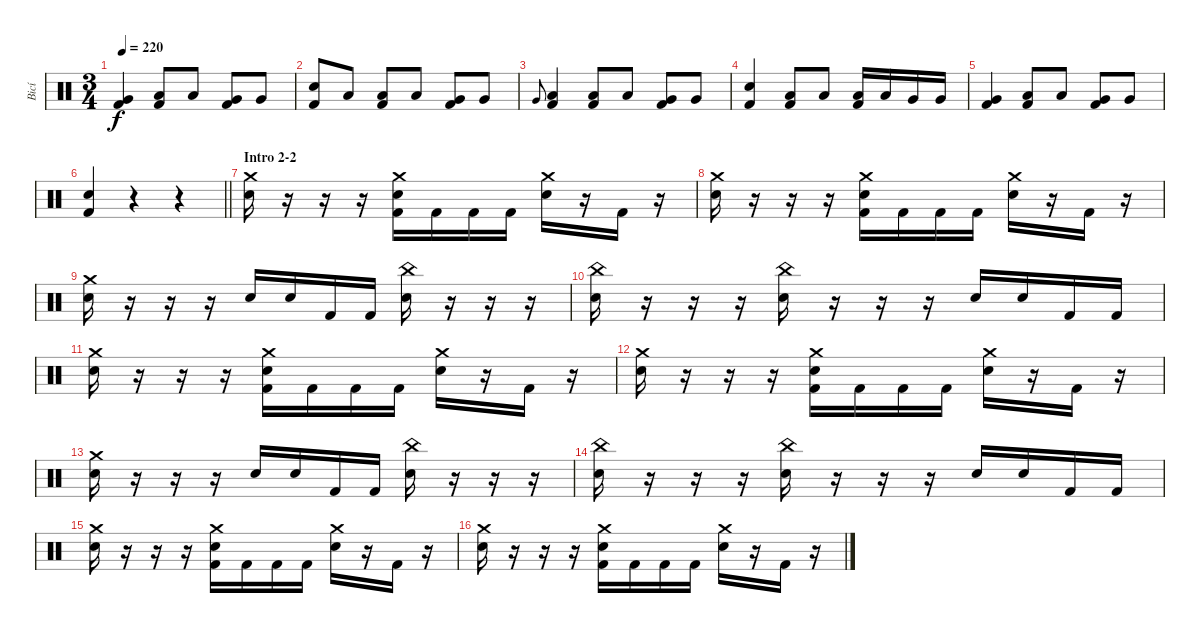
\track ("Bicí" "Bicí") {instrument percussion}
\staff {score}
\articulation defaults
\ts (3 4)
\tempo 220
\clef neutral
\ks c
("Very Low Tom (hit)" "Kick (hit) 2").4{dy f} ("Low Tom (hit)" "Kick (hit) 2").8 "Low Tom (hit)".8 ("Very Low Tom (hit)" "Kick (hit) 2").8 "Very Low Tom (hit)".8 |
("Electric Snare (hit)" "Kick (hit) 2").8 "Low Tom (hit)".8 ("Low Tom (hit)" "Kick (hit) 2").8 "Low Tom (hit)".8 ("Very Low Tom (hit)" "Kick (hit) 2").8 "Very Low Tom (hit)".8 |
"Very Low Tom (hit)".8{gr onbeat} ("Low Tom (hit)" "Kick (hit) 2").4 ("Low Tom (hit)" "Kick (hit) 2").8 "Low Tom (hit)".8 ("Very Low Tom (hit)" "Kick (hit) 2").8 "Very Low Tom (hit)".8 |
("Electric Snare (hit)" "Kick (hit) 2").4 ("Low Tom (hit)" "Kick (hit) 2").8 "Low Tom (hit)".8 ("Low Tom (hit)" "Kick (hit) 2").16 "Low Tom (hit)".16 "Very Low Tom (hit)".16 "Very Low Tom (hit)".16 |
("Very Low Tom (hit)" "Kick (hit) 2").4 ("Low Tom (hit)" "Kick (hit) 2").8 "Low Tom (hit)".8 ("Very Low Tom (hit)" "Kick (hit) 2").8 "Very Low Tom (hit)".8 |
\barLineRight lightlight
("Electric Snare (hit)" "Kick (hit) 2").4 r.4 r.4 |
\section ("" "Intro 2-2")
("Crash medium (hit)" "Electric Snare (hit)").16 r.16 r.16 r.16 ("Crash medium (hit)" "Electric Snare (hit)" "Kick (hit) 2").16 "Kick (hit) 2".16 "Kick (hit) 2".16 "Kick (hit) 2".16 ("Crash medium (hit)" "Electric Snare (hit)").16 r.16 "Kick (hit) 2".16 r.16 |
("Crash medium (hit)" "Electric Snare (hit)").16 r.16 r.16 r.16 ("Crash medium (hit)" "Electric Snare (hit)" "Kick (hit) 2").16 "Kick (hit) 2".16 "Kick (hit) 2".16 "Kick (hit) 2".16 ("Crash medium (hit)" "Electric Snare (hit)").16 r.16 "Kick (hit) 2".16 r.16 |
("Crash medium (hit)" "Electric Snare (hit)").16 r.16 r.16 r.16 "Electric Snare (hit)".16 "Electric Snare (hit)".16 "Kick (hit) 2".16 "Kick (hit) 2".16 ("China (hit)" "Electric Snare (hit)").16 r.16 r.16 r.16 |
("China (hit)" "Electric Snare (hit)").16 r.16 r.16 r.16 ("China (hit)" "Electric Snare (hit)").16 r.16 r.16 r.16 "Electric Snare (hit)".16 "Electric Snare (hit)".16 "Kick (hit) 2".16 "Kick (hit) 2".16 |
("Crash medium (hit)" "Electric Snare (hit)").16 r.16 r.16 r.16 ("Crash medium (hit)" "Electric Snare (hit)" "Kick (hit) 2").16 "Kick (hit) 2".16 "Kick (hit) 2".16 "Kick (hit) 2".16 ("Crash medium (hit)" "Electric Snare (hit)").16 r.16 "Kick (hit) 2".16 r.16 |
("Crash medium (hit)" "Electric Snare (hit)").16 r.16 r.16 r.16 ("Crash medium (hit)" "Electric Snare (hit)" "Kick (hit) 2").16 "Kick (hit) 2".16 "Kick (hit) 2".16 "Kick (hit) 2".16 ("Crash medium (hit)" "Electric Snare (hit)").16 r.16 "Kick (hit) 2".16 r.16 |
("Crash medium (hit)" "Electric Snare (hit)").16 r.16 r.16 r.16 "Electric Snare (hit)".16 "Electric Snare (hit)".16 "Kick (hit) 2".16 "Kick (hit) 2".16 ("China (hit)" "Electric Snare (hit)").16 r.16 r.16 r.16 |
("China (hit)" "Electric Snare (hit)").16 r.16 r.16 r.16 ("China (hit)" "Electric Snare (hit)").16 r.16 r.16 r.16 "Electric Snare (hit)".16 "Electric Snare (hit)".16 "Kick (hit) 2".16 "Kick (hit) 2".16 |
("Crash medium (hit)" "Electric Snare (hit)").16 r.16 r.16 r.16 ("Crash medium (hit)" "Electric Snare (hit)" "Kick (hit) 2").16 "Kick (hit) 2".16 "Kick (hit) 2".16 "Kick (hit) 2".16 ("Crash medium (hit)" "Electric Snare (hit)").16 r.16 "Kick (hit) 2".16 r.16 |
("Crash medium (hit)" "Electric Snare (hit)").16 r.16 r.16 r.16 ("Crash medium (hit)" "Electric Snare (hit)" "Kick (hit) 2").16 "Kick (hit) 2".16 "Kick (hit) 2".16 "Kick (hit) 2".16 ("Crash medium (hit)" "Electric Snare (hit)").16 r.16 "Kick (hit) 2".16 r.16
